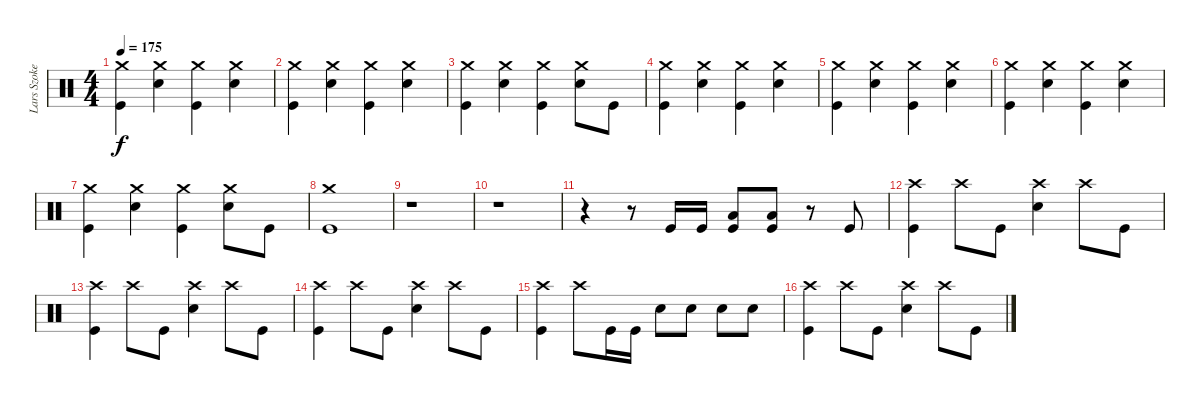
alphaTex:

\track ("Lars Szoke" "Lars Szoke") {instrument percussion}
\staff {score}
\articulation defaults
\ts (4 4)
\tempo 175
\clef neutral
\ks c
("Crash medium (hit)" "Kick (hit)").4{dy f} ("Crash medium (hit)" "Electric Snare (hit)").4 ("Crash medium (hit)" "Kick (hit)").4 ("Crash medium (hit)" "Electric Snare (hit)").4 |
("Crash medium (hit)" "Kick (hit)").4 ("Crash medium (hit)" "Electric Snare (hit)").4 ("Crash medium (hit)" "Kick (hit)").4 ("Crash medium (hit)" "Electric Snare (hit)").4 |
("Crash medium (hit)" "Kick (hit)").4 ("Crash medium (hit)" "Electric Snare (hit)").4 ("Crash medium (hit)" "Kick (hit)").4 ("Crash medium (hit)" "Electric Snare (hit)").8 "Kick (hit)".8 |
("Crash medium (hit)" "Kick (hit)").4 ("Crash medium (hit)" "Electric Snare (hit)").4 ("Crash medium (hit)" "Kick (hit)").4 ("Crash medium (hit)" "Electric Snare (hit)").4 |
("Crash medium (hit)" "Kick (hit)").4 ("Crash medium (hit)" "Electric Snare (hit)").4 ("Crash medium (hit)" "Kick (hit)").4 ("Crash medium (hit)" "Electric Snare (hit)").4 |
("Crash medium (hit)" "Kick (hit)").4 ("Crash medium (hit)" "Electric Snare (hit)").4 ("Crash medium (hit)" "Kick (hit)").4 ("Crash medium (hit)" "Electric Snare (hit)").4 |
("Crash medium (hit)" "Kick (hit)").4 ("Crash medium (hit)" "Electric Snare (hit)").4 ("Crash medium (hit)" "Kick (hit)").4 ("Crash medium (hit)" "Electric Snare (hit)").8 "Kick (hit)".8 |
("Crash medium (hit)" "Kick (hit)").1 |
r.1 |
r.1 |
r.4 r.8 "Kick (hit)".16 "Kick (hit)".16 ("Low Floor Tom (hit)" "Kick (hit)").8 ("Low Floor Tom (hit)" "Kick (hit)").8 r.8 "Kick (hit)".8 |
("Crash high (hit)" "Kick (hit)").4 "Crash high (hit)".8 "Kick (hit)".8 ("Crash high (hit)" "Electric Snare (hit)").4 "Crash high (hit)".8 "Kick (hit)".8 |
("Crash high (hit)" "Kick (hit)").4 "Crash high (hit)".8 "Kick (hit)".8 ("Crash high (hit)" "Electric Snare (hit)").4 "Crash high (hit)".8 "Kick (hit)".8 |
("Crash high (hit)" "Kick (hit)").4 "Crash high (hit)".8 "Kick (hit)".8 ("Crash high (hit)" "Electric Snare (hit)").4 "Crash high (hit)".8 "Kick (hit)".8 |
("Crash high (hit)" "Kick (hit)").4 "Crash high (hit)".8 "Kick (hit)".16 "Kick (hit)".16 "Electric Snare (hit)".8 "Electric Snare (hit)".8 "Electric Snare (hit)".8 "Electric Snare (hit)".8 |
("Crash high (hit)" "Kick (hit)").4 "Crash high (hit)".8 "Kick (hit)".8 ("Crash high (hit)" "Electric Snare (hit)").4 "Crash high (hit)".8 "Kick (hit)".8
